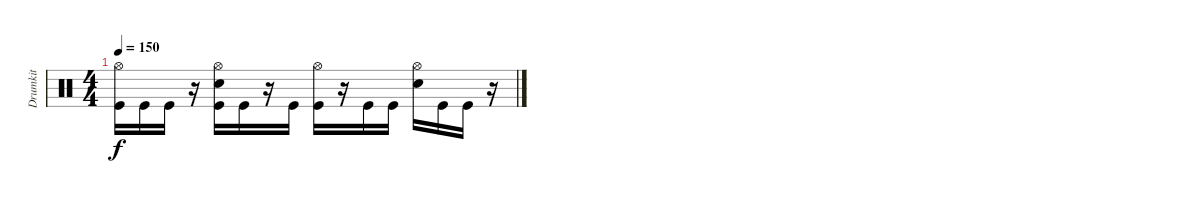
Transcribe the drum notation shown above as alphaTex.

\track ("Drumkit" "Drumkit") {instrument percussion}
\staff {score}
\articulation defaults
\ts (4 4)
\tempo 150
\clef neutral
\ks c
("Hi-Hat (open)" "Kick (hit)").16{dy f} "Kick (hit)".16 "Kick (hit)".16 r.16 ("Snare (hit) 2" "Hi-Hat (open)" "Kick (hit)").16 "Kick (hit)".16 r.16 "Kick (hit)".16 ("Hi-Hat (open)" "Kick (hit)").16 r.16 "Kick (hit)".16 "Kick (hit)".16 ("Snare (hit) 2" "Hi-Hat (open)").16 "Kick (hit)".16 "Kick (hit)".16 r.16
